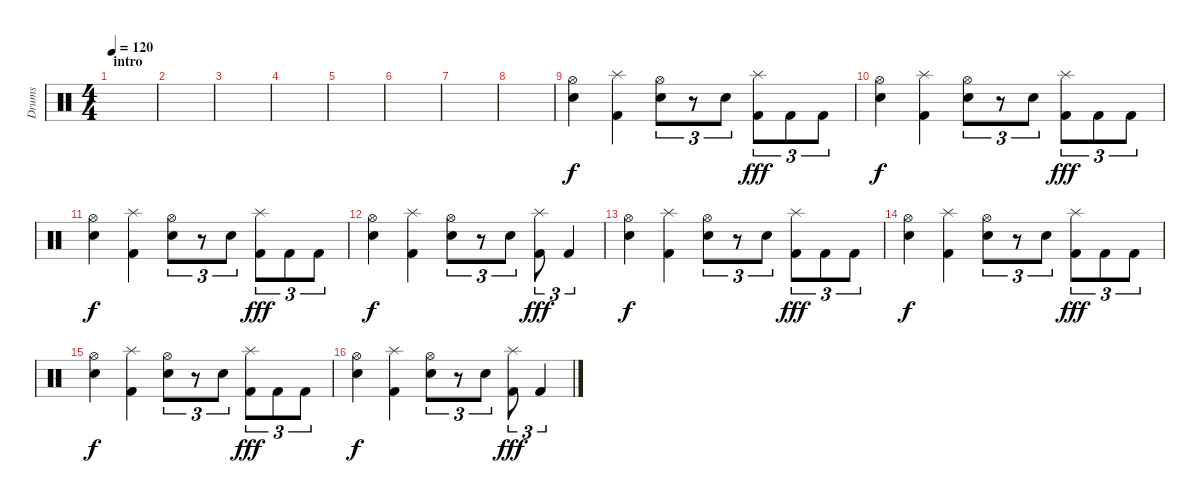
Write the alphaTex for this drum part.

\track ("Drums" "Drums") {instrument percussion}
\staff {score}
\articulation defaults
\ts (4 4)
\section ("" "intro")
\tempo 120
\clef neutral
\ks c
|
|
|
|
|
|
|
|
("Hi-Hat (open)" "Electric Snare (hit)").4 ("Splash (hit)" "Kick (hit) 2").4 ("Hi-Hat (open)" "Electric Snare (hit)").8{tu (3 2)} r.8{tu (3 2)} "Electric Snare (hit)".8{tu (3 2)} ("Splash (hit)" "Kick (hit) 2").8{tu (3 2) dy fff} "Kick (hit) 2".8{tu (3 2)} "Kick (hit) 2".8{tu (3 2)} |
("Hi-Hat (open)" "Electric Snare (hit)").4{dy f} ("Splash (hit)" "Kick (hit) 2").4 ("Hi-Hat (open)" "Electric Snare (hit)").8{tu (3 2)} r.8{tu (3 2)} "Electric Snare (hit)".8{tu (3 2)} ("Splash (hit)" "Kick (hit) 2").8{tu (3 2) dy fff} "Kick (hit) 2".8{tu (3 2)} "Kick (hit) 2".8{tu (3 2)} |
("Hi-Hat (open)" "Electric Snare (hit)").4{dy f} ("Splash (hit)" "Kick (hit) 2").4 ("Hi-Hat (open)" "Electric Snare (hit)").8{tu (3 2)} r.8{tu (3 2)} "Electric Snare (hit)".8{tu (3 2)} ("Splash (hit)" "Kick (hit) 2").8{tu (3 2) dy fff} "Kick (hit) 2".8{tu (3 2)} "Kick (hit) 2".8{tu (3 2)} |
("Hi-Hat (open)" "Electric Snare (hit)").4{dy f} ("Splash (hit)" "Kick (hit) 2").4 ("Hi-Hat (open)" "Electric Snare (hit)").8{tu (3 2)} r.8{tu (3 2)} "Electric Snare (hit)".8{tu (3 2)} ("Splash (hit)" "Kick (hit) 2").8{tu (3 2) dy fff} "Kick (hit) 2".4{tu (3 2)} |
("Hi-Hat (open)" "Electric Snare (hit)").4{dy f} ("Splash (hit)" "Kick (hit) 2").4 ("Hi-Hat (open)" "Electric Snare (hit)").8{tu (3 2)} r.8{tu (3 2)} "Electric Snare (hit)".8{tu (3 2)} ("Splash (hit)" "Kick (hit) 2").8{tu (3 2) dy fff} "Kick (hit) 2".8{tu (3 2)} "Kick (hit) 2".8{tu (3 2)} |
("Hi-Hat (open)" "Electric Snare (hit)").4{dy f} ("Splash (hit)" "Kick (hit) 2").4 ("Hi-Hat (open)" "Electric Snare (hit)").8{tu (3 2)} r.8{tu (3 2)} "Electric Snare (hit)".8{tu (3 2)} ("Splash (hit)" "Kick (hit) 2").8{tu (3 2) dy fff} "Kick (hit) 2".8{tu (3 2)} "Kick (hit) 2".8{tu (3 2)} |
("Hi-Hat (open)" "Electric Snare (hit)").4{dy f} ("Splash (hit)" "Kick (hit) 2").4 ("Hi-Hat (open)" "Electric Snare (hit)").8{tu (3 2)} r.8{tu (3 2)} "Electric Snare (hit)".8{tu (3 2)} ("Splash (hit)" "Kick (hit) 2").8{tu (3 2) dy fff} "Kick (hit) 2".8{tu (3 2)} "Kick (hit) 2".8{tu (3 2)} |
("Hi-Hat (open)" "Electric Snare (hit)").4{dy f} ("Splash (hit)" "Kick (hit) 2").4 ("Hi-Hat (open)" "Electric Snare (hit)").8{tu (3 2)} r.8{tu (3 2)} "Electric Snare (hit)".8{tu (3 2)} ("Splash (hit)" "Kick (hit) 2").8{tu (3 2) dy fff} "Kick (hit) 2".4{tu (3 2)}
